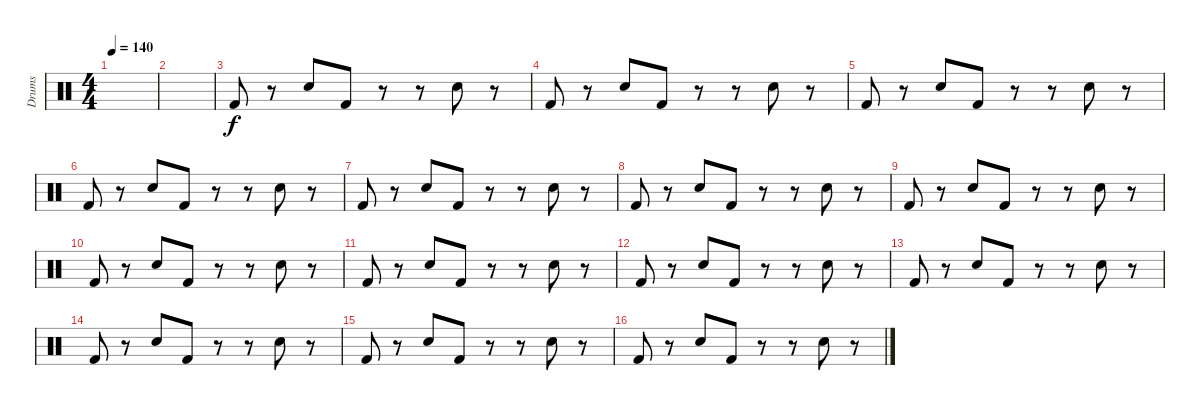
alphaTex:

\track ("Drums" "Drums") {instrument percussion}
\staff {score}
\articulation defaults
\ts (4 4)
\tempo 140
\clef neutral
\ks c
|
|
"Kick (hit) 2".8 r.8 "Electric Snare (hit)".8 "Kick (hit) 2".8 r.8 r.8 "Electric Snare (hit)".8 r.8 |
"Kick (hit) 2".8 r.8 "Electric Snare (hit)".8 "Kick (hit) 2".8 r.8 r.8 "Electric Snare (hit)".8 r.8 |
"Kick (hit) 2".8 r.8 "Electric Snare (hit)".8 "Kick (hit) 2".8 r.8 r.8 "Electric Snare (hit)".8 r.8 |
"Kick (hit) 2".8 r.8 "Electric Snare (hit)".8 "Kick (hit) 2".8 r.8 r.8 "Electric Snare (hit)".8 r.8 |
"Kick (hit) 2".8 r.8 "Electric Snare (hit)".8 "Kick (hit) 2".8 r.8 r.8 "Electric Snare (hit)".8 r.8 |
"Kick (hit) 2".8 r.8 "Electric Snare (hit)".8 "Kick (hit) 2".8 r.8 r.8 "Electric Snare (hit)".8 r.8 |
"Kick (hit) 2".8 r.8 "Electric Snare (hit)".8 "Kick (hit) 2".8 r.8 r.8 "Electric Snare (hit)".8 r.8 |
"Kick (hit) 2".8 r.8 "Electric Snare (hit)".8 "Kick (hit) 2".8 r.8 r.8 "Electric Snare (hit)".8 r.8 |
"Kick (hit) 2".8 r.8 "Electric Snare (hit)".8 "Kick (hit) 2".8 r.8 r.8 "Electric Snare (hit)".8 r.8 |
"Kick (hit) 2".8 r.8 "Electric Snare (hit)".8 "Kick (hit) 2".8 r.8 r.8 "Electric Snare (hit)".8 r.8 |
"Kick (hit) 2".8 r.8 "Electric Snare (hit)".8 "Kick (hit) 2".8 r.8 r.8 "Electric Snare (hit)".8 r.8 |
"Kick (hit) 2".8 r.8 "Electric Snare (hit)".8 "Kick (hit) 2".8 r.8 r.8 "Electric Snare (hit)".8 r.8 |
"Kick (hit) 2".8 r.8 "Electric Snare (hit)".8 "Kick (hit) 2".8 r.8 r.8 "Electric Snare (hit)".8 r.8 |
"Kick (hit) 2".8 r.8 "Electric Snare (hit)".8 "Kick (hit) 2".8 r.8 r.8 "Electric Snare (hit)".8 r.8
